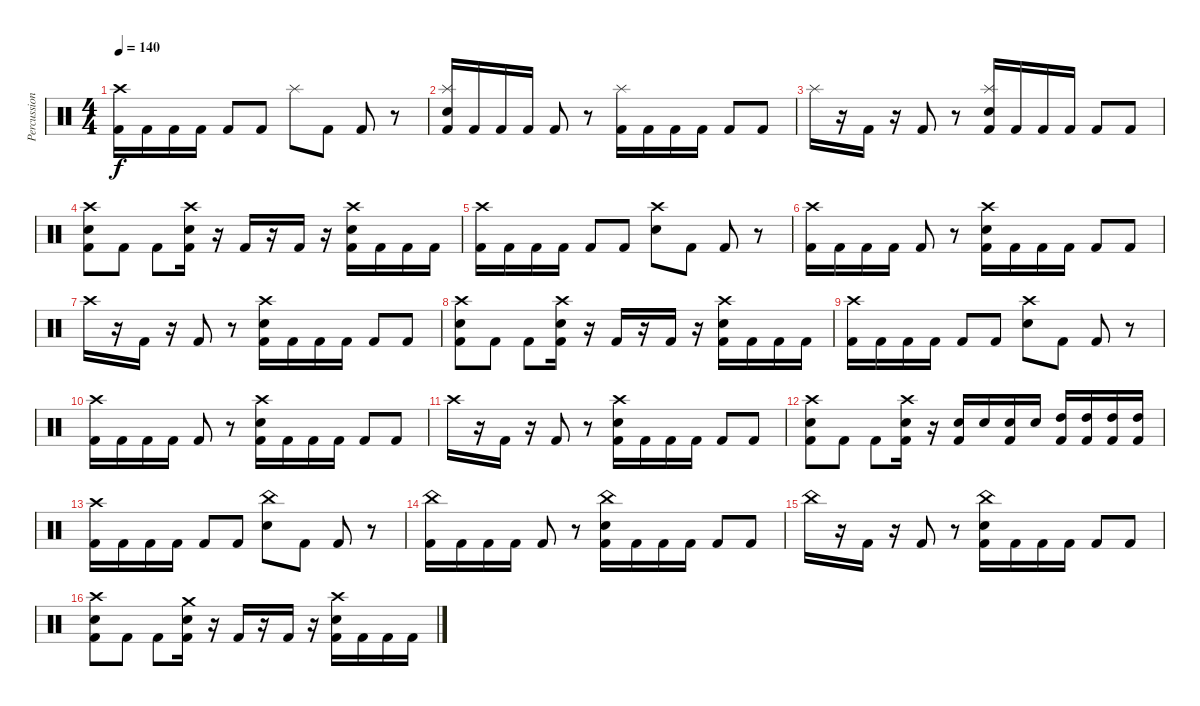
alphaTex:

\track ("Percussion" "Percussion") {instrument percussion}
\staff {score}
\articulation defaults
\ts (4 4)
\tempo 140
\clef neutral
\ks c
("Crash high (hit)" "Kick (hit) 2").16{dy f} "Kick (hit) 2".16 "Kick (hit) 2".16 "Kick (hit) 2".16 "Kick (hit) 2".8 "Kick (hit) 2".8 "Splash (hit)".8 "Kick (hit) 2".8 "Kick (hit) 2".8 r.8 |
("Splash (hit)" "Snare (hit) 2" "Kick (hit) 2").16 "Kick (hit) 2".16 "Kick (hit) 2".16 "Kick (hit) 2".16 "Kick (hit) 2".8 r.8 ("Splash (hit)" "Kick (hit) 2").16 "Kick (hit) 2".16 "Kick (hit) 2".16 "Kick (hit) 2".16 "Kick (hit) 2".8 "Kick (hit) 2".8 |
"Splash (hit)".16 r.16 "Kick (hit) 2".16 r.16 "Kick (hit) 2".8 r.8 ("Splash (hit)" "Snare (hit) 2" "Kick (hit) 2").16 "Kick (hit) 2".16 "Kick (hit) 2".16 "Kick (hit) 2".16 "Kick (hit) 2".8 "Kick (hit) 2".8 |
("Crash high (hit)" "Snare (hit) 2" "Kick (hit) 2").8 "Kick (hit) 2".8 "Kick (hit) 2".8 ("Crash high (hit)" "Snare (hit) 2" "Kick (hit) 2").16 r.16 "Kick (hit) 2".16 r.16 "Kick (hit) 2".16 r.16 ("Crash high (hit)" "Snare (hit) 2" "Kick (hit) 2").16 "Kick (hit) 2".16 "Kick (hit) 2".16 "Kick (hit) 2".16 |
("Crash high (hit)" "Kick (hit) 2").16 "Kick (hit) 2".16 "Kick (hit) 2".16 "Kick (hit) 2".16 "Kick (hit) 2".8 "Kick (hit) 2".8 ("Crash high (hit)" "Snare (hit) 2").8 "Kick (hit) 2".8 "Kick (hit) 2".8 r.8 |
("Crash high (hit)" "Kick (hit) 2").16 "Kick (hit) 2".16 "Kick (hit) 2".16 "Kick (hit) 2".16 "Kick (hit) 2".8 r.8 ("Crash high (hit)" "Snare (hit) 2" "Kick (hit) 2").16 "Kick (hit) 2".16 "Kick (hit) 2".16 "Kick (hit) 2".16 "Kick (hit) 2".8 "Kick (hit) 2".8 |
"Crash high (hit)".16 r.16 "Kick (hit) 2".16 r.16 "Kick (hit) 2".8 r.8 ("Crash high (hit)" "Snare (hit) 2" "Kick (hit) 2").16 "Kick (hit) 2".16 "Kick (hit) 2".16 "Kick (hit) 2".16 "Kick (hit) 2".8 "Kick (hit) 2".8 |
("Crash high (hit)" "Snare (hit) 2" "Kick (hit) 2").8 "Kick (hit) 2".8 "Kick (hit) 2".8 ("Crash high (hit)" "Snare (hit) 2" "Kick (hit) 2").16 r.16 "Kick (hit) 2".16 r.16 "Kick (hit) 2".16 r.16 ("Crash high (hit)" "Snare (hit) 2" "Kick (hit) 2").16 "Kick (hit) 2".16 "Kick (hit) 2".16 "Kick (hit) 2".16 |
("Crash high (hit)" "Kick (hit) 2").16 "Kick (hit) 2".16 "Kick (hit) 2".16 "Kick (hit) 2".16 "Kick (hit) 2".8 "Kick (hit) 2".8 ("Crash high (hit)" "Snare (hit) 2").8 "Kick (hit) 2".8 "Kick (hit) 2".8 r.8 |
("Crash high (hit)" "Kick (hit) 2").16 "Kick (hit) 2".16 "Kick (hit) 2".16 "Kick (hit) 2".16 "Kick (hit) 2".8 r.8 ("Crash high (hit)" "Snare (hit) 2" "Kick (hit) 2").16 "Kick (hit) 2".16 "Kick (hit) 2".16 "Kick (hit) 2".16 "Kick (hit) 2".8 "Kick (hit) 2".8 |
"Crash high (hit)".16 r.16 "Kick (hit) 2".16 r.16 "Kick (hit) 2".8 r.8 ("Crash high (hit)" "Snare (hit) 2" "Kick (hit) 2").16 "Kick (hit) 2".16 "Kick (hit) 2".16 "Kick (hit) 2".16 "Kick (hit) 2".8 "Kick (hit) 2".8 |
("Crash high (hit)" "Snare (hit) 2" "Kick (hit) 2").8 "Kick (hit) 2".8 "Kick (hit) 2".8 ("Crash high (hit)" "Snare (hit) 2" "Kick (hit) 2").16 r.16 ("Snare (hit) 2" "Kick (hit) 2").16 "Snare (hit) 2".16 ("Snare (hit) 2" "Kick (hit) 2").16 "Snare (hit) 2".16 ("High Tom (hit)" "Kick (hit) 2").16 ("High Tom (hit)" "Kick (hit) 2").16 ("High Tom (hit)" "Kick (hit) 2").16 ("High Tom (hit)" "Kick (hit) 2").16 |
("Crash high (hit)" "Kick (hit) 2").16 "Kick (hit) 2".16 "Kick (hit) 2".16 "Kick (hit) 2".16 "Kick (hit) 2".8 "Kick (hit) 2".8 ("China (hit)" "Snare (hit) 2").8 "Kick (hit) 2".8 "Kick (hit) 2".8 r.8 |
("China (hit)" "Kick (hit) 2").16 "Kick (hit) 2".16 "Kick (hit) 2".16 "Kick (hit) 2".16 "Kick (hit) 2".8 r.8 ("China (hit)" "Snare (hit) 2" "Kick (hit) 2").16 "Kick (hit) 2".16 "Kick (hit) 2".16 "Kick (hit) 2".16 "Kick (hit) 2".8 "Kick (hit) 2".8 |
"China (hit)".16 r.16 "Kick (hit) 2".16 r.16 "Kick (hit) 2".8 r.8 ("China (hit)" "Snare (hit) 2" "Kick (hit) 2").16 "Kick (hit) 2".16 "Kick (hit) 2".16 "Kick (hit) 2".16 "Kick (hit) 2".8 "Kick (hit) 2".8 |
("Crash high (hit)" "Snare (hit) 2" "Kick (hit) 2").8 "Kick (hit) 2".8 "Kick (hit) 2".8 ("Crash medium (hit)" "Snare (hit) 2" "Kick (hit) 2").16 r.16 "Kick (hit) 2".16 r.16 "Kick (hit) 2".16 r.16 ("Crash high (hit)" "Snare (hit) 2" "Kick (hit) 2").16 "Kick (hit) 2".16 "Kick (hit) 2".16 "Kick (hit) 2".16
